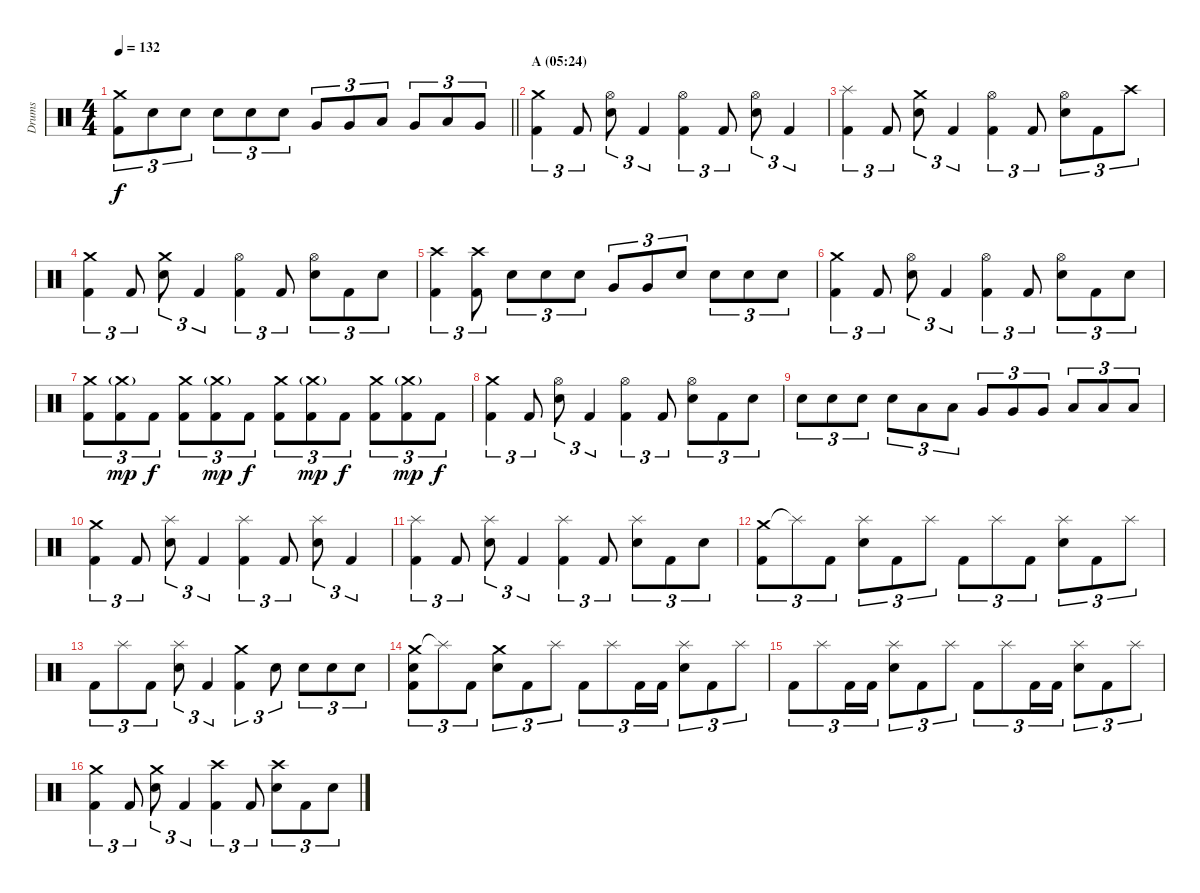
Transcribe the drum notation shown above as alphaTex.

\track ("Drums" "Drums") {instrument percussion}
\staff {score}
\articulation defaults
\ts (4 4)
\tempo 132
\clef neutral
\barLineRight lightlight
\ks c
("Crash medium (hit)" "Kick (hit) 2").8{tu (3 2) dy f} "Electric Snare (hit)".8{tu (3 2)} "Electric Snare (hit)".8{tu (3 2)} "Electric Snare (hit)".8{tu (3 2)} "Electric Snare (hit)".8{tu (3 2)} "Electric Snare (hit)".8{tu (3 2)} "Very Low Tom (hit)".8{tu (3 2)} "Very Low Tom (hit)".8{tu (3 2)} "Low Tom (hit)".8{tu (3 2)} "Very Low Tom (hit)".8{tu (3 2)} "Low Tom (hit)".8{tu (3 2)} "Very Low Tom (hit)".8{tu (3 2)} |
\section ("" "A (05:24)")
("Crash medium (hit)" "Kick (hit) 2").4{tu (3 2)} "Kick (hit) 2".8{tu (3 2)} ("Hi-Hat (open)" "Electric Snare (hit)").8{tu (3 2)} "Kick (hit) 2".4{tu (3 2)} ("Hi-Hat (open)" "Kick (hit) 2").4{tu (3 2)} "Kick (hit) 2".8{tu (3 2)} ("Hi-Hat (open)" "Electric Snare (hit)").8{tu (3 2)} "Kick (hit) 2".4{tu (3 2)} |
("Splash (hit)" "Kick (hit) 2").4{tu (3 2)} "Kick (hit) 2".8{tu (3 2)} ("Crash medium (hit)" "Electric Snare (hit)").8{tu (3 2)} "Kick (hit) 2".4{tu (3 2)} ("Hi-Hat (open)" "Kick (hit) 2").4{tu (3 2)} "Kick (hit) 2".8{tu (3 2)} ("Hi-Hat (open)" "Electric Snare (hit)").8{tu (3 2)} "Kick (hit) 2".8{tu (3 2)} "Crash high (hit)".8{tu (3 2)} |
("Crash medium (hit)" "Kick (hit) 2").4{tu (3 2)} "Kick (hit) 2".8{tu (3 2)} ("Crash medium (hit)" "Electric Snare (hit)").8{tu (3 2)} "Kick (hit) 2".4{tu (3 2)} ("Hi-Hat (open)" "Kick (hit) 2").4{tu (3 2)} "Kick (hit) 2".8{tu (3 2)} ("Hi-Hat (open)" "Electric Snare (hit)").8{tu (3 2)} "Kick (hit) 2".8{tu (3 2)} "Electric Snare (hit)".8{tu (3 2)} |
("Crash high (hit)" "Kick (hit) 2").4{tu (3 2)} ("Crash high (hit)" "Kick (hit) 2").8{tu (3 2)} "Electric Snare (hit)".8{tu (3 2)} "Electric Snare (hit)".8{tu (3 2)} "Electric Snare (hit)".8{tu (3 2)} "Very Low Tom (hit)".8{tu (3 2)} "Very Low Tom (hit)".8{tu (3 2)} "Electric Snare (hit)".8{tu (3 2)} "Electric Snare (hit)".8{tu (3 2)} "Electric Snare (hit)".8{tu (3 2)} "Electric Snare (hit)".8{tu (3 2)} |
("Crash medium (hit)" "Kick (hit) 2").4{tu (3 2)} "Kick (hit) 2".8{tu (3 2)} ("Hi-Hat (open)" "Electric Snare (hit)").8{tu (3 2)} "Kick (hit) 2".4{tu (3 2)} ("Hi-Hat (open)" "Kick (hit) 2").4{tu (3 2)} "Kick (hit) 2".8{tu (3 2)} ("Hi-Hat (open)" "Electric Snare (hit)").8{tu (3 2)} "Kick (hit) 2".8{tu (3 2)} "Electric Snare (hit)".8{tu (3 2)} |
("Crash medium (hit)" "Kick (hit) 2").8{tu (3 2)} ("Crash medium (hit)"{g} "Kick (hit) 2").8{tu (3 2) dy mp} "Kick (hit) 2".8{tu (3 2) dy f} ("Crash medium (hit)" "Kick (hit) 2").8{tu (3 2)} ("Crash medium (hit)"{g} "Kick (hit) 2").8{tu (3 2) dy mp} "Kick (hit) 2".8{tu (3 2) dy f} ("Crash medium (hit)" "Kick (hit) 2").8{tu (3 2)} ("Crash medium (hit)"{g} "Kick (hit) 2").8{tu (3 2) dy mp} "Kick (hit) 2".8{tu (3 2) dy f} ("Crash medium (hit)" "Kick (hit) 2").8{tu (3 2)} ("Crash medium (hit)"{g} "Kick (hit) 2").8{tu (3 2) dy mp} "Kick (hit) 2".8{tu (3 2) dy f} |
("Crash medium (hit)" "Kick (hit) 2").4{tu (3 2)} "Kick (hit) 2".8{tu (3 2)} ("Hi-Hat (open)" "Electric Snare (hit)").8{tu (3 2)} "Kick (hit) 2".4{tu (3 2)} ("Hi-Hat (open)" "Kick (hit) 2").4{tu (3 2)} "Kick (hit) 2".8{tu (3 2)} ("Hi-Hat (open)" "Electric Snare (hit)").8{tu (3 2)} "Kick (hit) 2".8{tu (3 2)} "Electric Snare (hit)".8{tu (3 2)} |
"Electric Snare (hit)".8{tu (3 2)} "Electric Snare (hit)".8{tu (3 2)} "Electric Snare (hit)".8{tu (3 2)} "Electric Snare (hit)".8{tu (3 2)} "Low Tom (hit)".8{tu (3 2)} "Low Tom (hit)".8{tu (3 2)} "Very Low Tom (hit)".8{tu (3 2)} "Very Low Tom (hit)".8{tu (3 2)} "Very Low Tom (hit)".8{tu (3 2)} "Low Floor Tom (hit)".8{tu (3 2)} "Low Floor Tom (hit)".8{tu (3 2)} "Low Floor Tom (hit)".8{tu (3 2)} |
("Crash medium (hit)" "Kick (hit) 2").4{tu (3 2)} "Kick (hit) 2".8{tu (3 2)} ("Splash (hit)" "Electric Snare (hit)").8{tu (3 2)} "Kick (hit) 2".4{tu (3 2)} ("Splash (hit)" "Kick (hit) 2").4{tu (3 2)} "Kick (hit) 2".8{tu (3 2)} ("Splash (hit)" "Electric Snare (hit)").8{tu (3 2)} "Kick (hit) 2".4{tu (3 2)} |
("Splash (hit)" "Kick (hit) 2").4{tu (3 2)} "Kick (hit) 2".8{tu (3 2)} ("Splash (hit)" "Electric Snare (hit)").8{tu (3 2)} "Kick (hit) 2".4{tu (3 2)} ("Splash (hit)" "Kick (hit) 2").4{tu (3 2)} "Kick (hit) 2".8{tu (3 2)} ("Splash (hit)" "Electric Snare (hit)").8{tu (3 2)} "Kick (hit) 2".8{tu (3 2)} "Electric Snare (hit)".8{tu (3 2)} |
("Crash medium (hit)" "Kick (hit) 2").8{tu (3 2)} "Splash (hit)"{t}.8{tu (3 2)} "Kick (hit) 2".8{tu (3 2)} ("Splash (hit)" "Electric Snare (hit)").8{tu (3 2)} "Kick (hit) 2".8{tu (3 2)} "Splash (hit)".8{tu (3 2)} "Kick (hit) 2".8{tu (3 2)} "Splash (hit)".8{tu (3 2)} "Kick (hit) 2".8{tu (3 2)} ("Splash (hit)" "Electric Snare (hit)").8{tu (3 2)} "Kick (hit) 2".8{tu (3 2)} "Splash (hit)".8{tu (3 2)} |
"Kick (hit) 2".8{tu (3 2)} "Splash (hit)".8{tu (3 2)} "Kick (hit) 2".8{tu (3 2)} ("Splash (hit)" "Electric Snare (hit)").8{tu (3 2)} "Kick (hit) 2".4{tu (3 2)} ("Crash medium (hit)" "Kick (hit) 2").4{tu (3 2)} "Electric Snare (hit)".8{tu (3 2)} "Electric Snare (hit)".8{tu (3 2)} "Electric Snare (hit)".8{tu (3 2)} "Electric Snare (hit)".8{tu (3 2)} |
("Crash medium (hit)" "Electric Snare (hit)" "Kick (hit) 2").8{tu (3 2)} "Splash (hit)"{t}.8{tu (3 2)} "Kick (hit) 2".8{tu (3 2)} ("Crash medium (hit)" "Electric Snare (hit)").8{tu (3 2)} "Kick (hit) 2".8{tu (3 2)} "Splash (hit)".8{tu (3 2)} "Kick (hit) 2".8{tu (3 2)} "Splash (hit)".8{tu (3 2)} "Kick (hit) 2".16{tu (3 2)} "Kick (hit) 2".16{tu (3 2)} ("Splash (hit)" "Electric Snare (hit)").8{tu (3 2)} "Kick (hit) 2".8{tu (3 2)} "Splash (hit)".8{tu (3 2)} |
"Kick (hit) 2".8{tu (3 2)} "Splash (hit)".8{tu (3 2)} "Kick (hit) 2".16{tu (3 2)} "Kick (hit) 2".16{tu (3 2)} ("Splash (hit)" "Electric Snare (hit)").8{tu (3 2)} "Kick (hit) 2".8{tu (3 2)} "Splash (hit)".8{tu (3 2)} "Kick (hit) 2".8{tu (3 2)} "Splash (hit)".8{tu (3 2)} "Kick (hit) 2".16{tu (3 2)} "Kick (hit) 2".16{tu (3 2)} ("Splash (hit)" "Electric Snare (hit)").8{tu (3 2)} "Kick (hit) 2".8{tu (3 2)} "Splash (hit)".8{tu (3 2)} |
("Crash medium (hit)" "Kick (hit) 2").4{tu (3 2)} "Kick (hit) 2".8{tu (3 2)} ("Crash medium (hit)" "Electric Snare (hit)").8{tu (3 2)} "Kick (hit) 2".4{tu (3 2)} ("Crash high (hit)" "Kick (hit) 2").4{tu (3 2)} "Kick (hit) 2".8{tu (3 2)} ("Crash high (hit)" "Electric Snare (hit)").8{tu (3 2)} "Kick (hit) 2".8{tu (3 2)} "Electric Snare (hit)".8{tu (3 2)}
